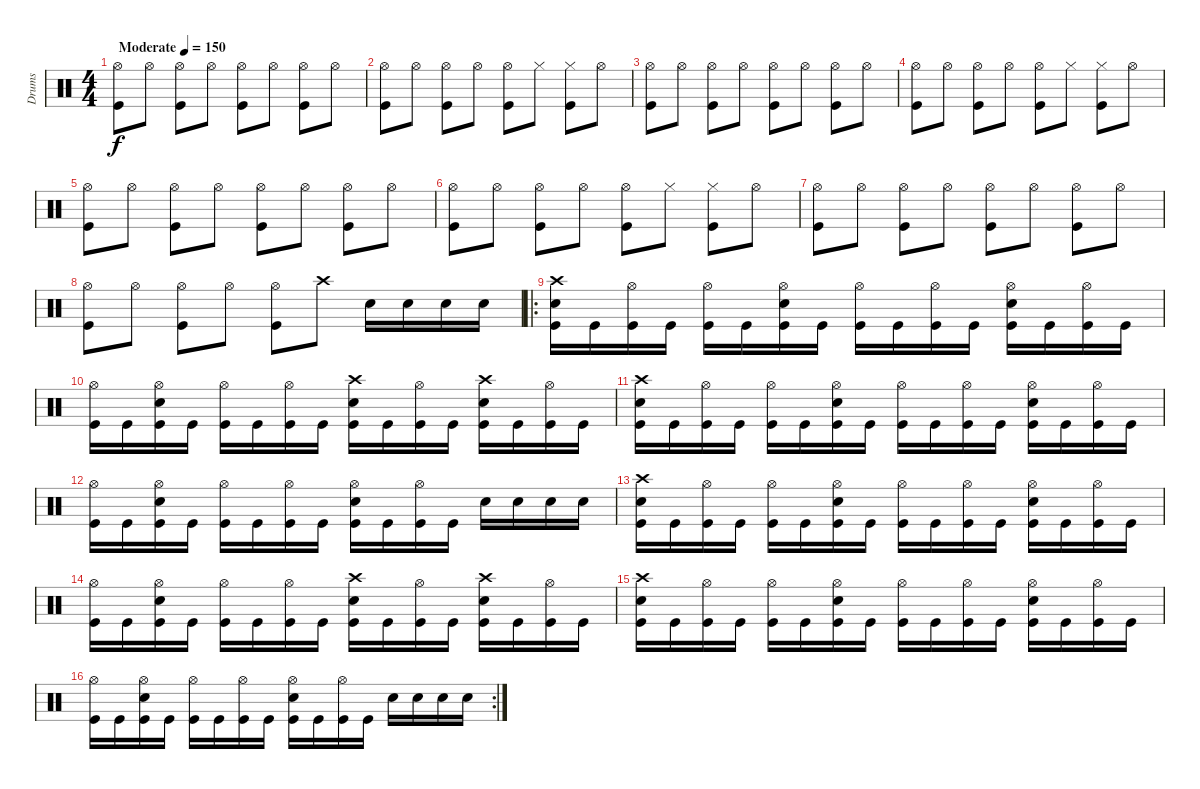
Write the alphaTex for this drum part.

\track ("Drums" "Drums") {instrument percussion}
\staff {score}
\articulation defaults
\ts (4 4)
\tempo (150 "Moderate")
\clef neutral
\ks c
("Hi-Hat (open)" "Kick (hit)").8{dy f} "Hi-Hat (open)".8 ("Hi-Hat (open)" "Kick (hit)").8 "Hi-Hat (open)".8 ("Hi-Hat (open)" "Kick (hit)").8 "Hi-Hat (open)".8 ("Hi-Hat (open)" "Kick (hit)").8 "Hi-Hat (open)".8 |
("Hi-Hat (open)" "Kick (hit)").8 "Hi-Hat (open)".8 ("Hi-Hat (open)" "Kick (hit)").8 "Hi-Hat (open)".8 ("Hi-Hat (open)" "Kick (hit)").8 "Hi-Hat (closed)".8 ("Hi-Hat (closed)" "Kick (hit)").8 "Hi-Hat (open)".8 |
("Hi-Hat (open)" "Kick (hit)").8 "Hi-Hat (open)".8 ("Hi-Hat (open)" "Kick (hit)").8 "Hi-Hat (open)".8 ("Hi-Hat (open)" "Kick (hit)").8 "Hi-Hat (open)".8 ("Hi-Hat (open)" "Kick (hit)").8 "Hi-Hat (open)".8 |
("Hi-Hat (open)" "Kick (hit)").8 "Hi-Hat (open)".8 ("Hi-Hat (open)" "Kick (hit)").8 "Hi-Hat (open)".8 ("Hi-Hat (open)" "Kick (hit)").8 "Hi-Hat (closed)".8 ("Hi-Hat (closed)" "Kick (hit)").8 "Hi-Hat (open)".8 |
("Hi-Hat (open)" "Kick (hit)").8 "Hi-Hat (open)".8 ("Hi-Hat (open)" "Kick (hit)").8 "Hi-Hat (open)".8 ("Hi-Hat (open)" "Kick (hit)").8 "Hi-Hat (open)".8 ("Hi-Hat (open)" "Kick (hit)").8 "Hi-Hat (open)".8 |
("Hi-Hat (open)" "Kick (hit)").8 "Hi-Hat (open)".8 ("Hi-Hat (open)" "Kick (hit)").8 "Hi-Hat (open)".8 ("Hi-Hat (open)" "Kick (hit)").8 "Hi-Hat (closed)".8 ("Hi-Hat (closed)" "Kick (hit)").8 "Hi-Hat (open)".8 |
("Hi-Hat (open)" "Kick (hit)").8 "Hi-Hat (open)".8 ("Hi-Hat (open)" "Kick (hit)").8 "Hi-Hat (open)".8 ("Hi-Hat (open)" "Kick (hit)").8 "Hi-Hat (open)".8 ("Hi-Hat (open)" "Kick (hit)").8 "Hi-Hat (open)".8 |
("Hi-Hat (open)" "Kick (hit)").8 "Hi-Hat (open)".8 ("Hi-Hat (open)" "Kick (hit)").8 "Hi-Hat (open)".8 ("Hi-Hat (open)" "Kick (hit)").8 "Crash high (hit)".8 "Snare (hit) 2".16 "Snare (hit) 2".16 "Snare (hit) 2".16 "Snare (hit) 2".16 |
\ro
("Crash high (hit)" "Snare (hit) 2" "Kick (hit)").16 "Kick (hit)".16 ("Hi-Hat (open)" "Kick (hit)").16 "Kick (hit)".16 ("Hi-Hat (open)" "Kick (hit)").16 "Kick (hit)".16 ("Hi-Hat (open)" "Snare (hit) 2" "Kick (hit)").16 "Kick (hit)".16 ("Hi-Hat (open)" "Kick (hit)").16 "Kick (hit)".16 ("Hi-Hat (open)" "Kick (hit)").16 "Kick (hit)".16 ("Hi-Hat (open)" "Snare (hit) 2" "Kick (hit)").16 "Kick (hit)".16 ("Hi-Hat (open)" "Kick (hit)").16 "Kick (hit)".16 |
("Hi-Hat (open)" "Kick (hit)").16 "Kick (hit)".16 ("Hi-Hat (open)" "Snare (hit) 2" "Kick (hit)").16 "Kick (hit)".16 ("Hi-Hat (open)" "Kick (hit)").16 "Kick (hit)".16 ("Hi-Hat (open)" "Kick (hit)").16 "Kick (hit)".16 ("Crash high (hit)" "Snare (hit) 2" "Kick (hit)").16 "Kick (hit)".16 ("Hi-Hat (open)" "Kick (hit)").16 "Kick (hit)".16 ("Crash high (hit)" "Snare (hit) 2" "Kick (hit)").16 "Kick (hit)".16 ("Hi-Hat (open)" "Kick (hit)").16 "Kick (hit)".16 |
("Crash high (hit)" "Snare (hit) 2" "Kick (hit)").16 "Kick (hit)".16 ("Hi-Hat (open)" "Kick (hit)").16 "Kick (hit)".16 ("Hi-Hat (open)" "Kick (hit)").16 "Kick (hit)".16 ("Hi-Hat (open)" "Snare (hit) 2" "Kick (hit)").16 "Kick (hit)".16 ("Hi-Hat (open)" "Kick (hit)").16 "Kick (hit)".16 ("Hi-Hat (open)" "Kick (hit)").16 "Kick (hit)".16 ("Hi-Hat (open)" "Snare (hit) 2" "Kick (hit)").16 "Kick (hit)".16 ("Hi-Hat (open)" "Kick (hit)").16 "Kick (hit)".16 |
("Hi-Hat (open)" "Kick (hit)").16 "Kick (hit)".16 ("Hi-Hat (open)" "Snare (hit) 2" "Kick (hit)").16 "Kick (hit)".16 ("Hi-Hat (open)" "Kick (hit)").16 "Kick (hit)".16 ("Hi-Hat (open)" "Kick (hit)").16 "Kick (hit)".16 ("Hi-Hat (open)" "Snare (hit) 2" "Kick (hit)").16 "Kick (hit)".16 ("Hi-Hat (open)" "Kick (hit)").16 "Kick (hit)".16 "Snare (hit) 2".16 "Snare (hit) 2".16 "Snare (hit) 2".16 "Snare (hit) 2".16 |
("Crash high (hit)" "Snare (hit) 2" "Kick (hit)").16 "Kick (hit)".16 ("Hi-Hat (open)" "Kick (hit)").16 "Kick (hit)".16 ("Hi-Hat (open)" "Kick (hit)").16 "Kick (hit)".16 ("Hi-Hat (open)" "Snare (hit) 2" "Kick (hit)").16 "Kick (hit)".16 ("Hi-Hat (open)" "Kick (hit)").16 "Kick (hit)".16 ("Hi-Hat (open)" "Kick (hit)").16 "Kick (hit)".16 ("Hi-Hat (open)" "Snare (hit) 2" "Kick (hit)").16 "Kick (hit)".16 ("Hi-Hat (open)" "Kick (hit)").16 "Kick (hit)".16 |
("Hi-Hat (open)" "Kick (hit)").16 "Kick (hit)".16 ("Hi-Hat (open)" "Snare (hit) 2" "Kick (hit)").16 "Kick (hit)".16 ("Hi-Hat (open)" "Kick (hit)").16 "Kick (hit)".16 ("Hi-Hat (open)" "Kick (hit)").16 "Kick (hit)".16 ("Crash high (hit)" "Snare (hit) 2" "Kick (hit)").16 "Kick (hit)".16 ("Hi-Hat (open)" "Kick (hit)").16 "Kick (hit)".16 ("Crash high (hit)" "Snare (hit) 2" "Kick (hit)").16 "Kick (hit)".16 ("Hi-Hat (open)" "Kick (hit)").16 "Kick (hit)".16 |
("Crash high (hit)" "Snare (hit) 2" "Kick (hit)").16 "Kick (hit)".16 ("Hi-Hat (open)" "Kick (hit)").16 "Kick (hit)".16 ("Hi-Hat (open)" "Kick (hit)").16 "Kick (hit)".16 ("Hi-Hat (open)" "Snare (hit) 2" "Kick (hit)").16 "Kick (hit)".16 ("Hi-Hat (open)" "Kick (hit)").16 "Kick (hit)".16 ("Hi-Hat (open)" "Kick (hit)").16 "Kick (hit)".16 ("Hi-Hat (open)" "Snare (hit) 2" "Kick (hit)").16 "Kick (hit)".16 ("Hi-Hat (open)" "Kick (hit)").16 "Kick (hit)".16 |
\rc 2
("Hi-Hat (open)" "Kick (hit)").16 "Kick (hit)".16 ("Hi-Hat (open)" "Snare (hit) 2" "Kick (hit)").16 "Kick (hit)".16 ("Hi-Hat (open)" "Kick (hit)").16 "Kick (hit)".16 ("Hi-Hat (open)" "Kick (hit)").16 "Kick (hit)".16 ("Hi-Hat (open)" "Snare (hit) 2" "Kick (hit)").16 "Kick (hit)".16 ("Hi-Hat (open)" "Kick (hit)").16 "Kick (hit)".16 "Snare (hit) 2".16 "Snare (hit) 2".16 "Snare (hit) 2".16 "Snare (hit) 2".16
